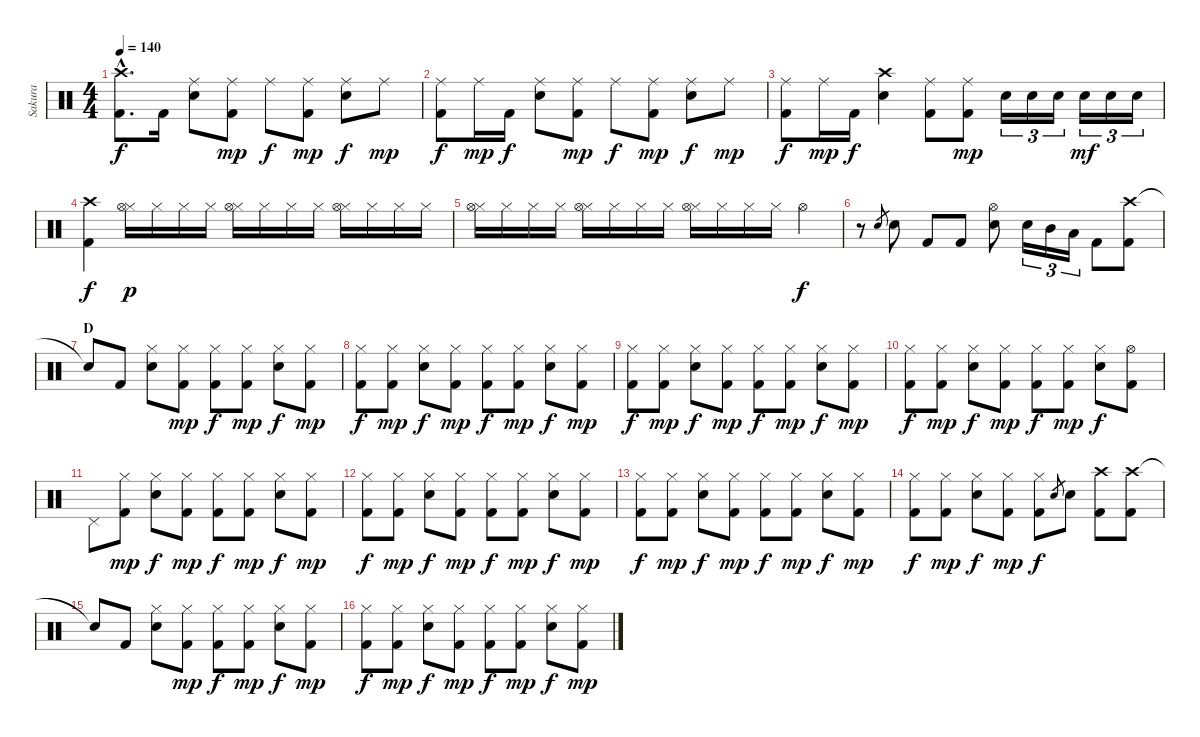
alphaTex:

\track ("Sakura" "Sakura") {instrument percussion}
\staff {score}
\articulation defaults
\ts (4 4)
\tempo 140
\clef neutral
\ks c
("Crash high (hit)"{hac} "Kick (hit) 2"{hac}).8{d dy f} "Kick (hit) 2".16 ("Ride (middle)" "Electric Snare (hit)").8 ("Ride (middle)" "Kick (hit) 2").8{dy mp} "Ride (middle)".8{dy f} ("Ride (middle)" "Kick (hit) 2").8{dy mp} ("Ride (middle)" "Electric Snare (hit)").8{dy f} "Ride (middle)".8{dy mp} |
("Ride (middle)" "Kick (hit) 2").8{dy f} "Ride (middle)".16{dy mp} "Kick (hit) 2".16{dy f} ("Ride (middle)" "Electric Snare (hit)").8 ("Ride (middle)" "Kick (hit) 2").8{dy mp} "Ride (middle)".8{dy f} ("Ride (middle)" "Kick (hit) 2").8{dy mp} ("Ride (middle)" "Electric Snare (hit)").8{dy f} "Ride (middle)".8{dy mp} |
("Ride (middle)" "Kick (hit) 2").8{dy f} "Ride (middle)".16{dy mp} "Kick (hit) 2".16{dy f} ("Crash high (hit)" "Electric Snare (hit)").4 ("Ride (middle)" "Kick (hit) 2").8 ("Ride (middle)" "Kick (hit) 2").8{dy mp} "Electric Snare (hit)".16{tu (3 2)} "Electric Snare (hit)".16{tu (3 2)} "Electric Snare (hit)".16{tu (3 2)} "Electric Snare (hit)".16{tu (3 2) dy mf} "Electric Snare (hit)".16{tu (3 2)} "Electric Snare (hit)".16{tu (3 2)} |
("Crash high (hit)" "Kick (hit) 2").4{dy f} ("Hi-Hat (closed)" "Hi-Hat (open)").16{dy p} "Hi-Hat (closed)".16 "Hi-Hat (closed)".16 "Hi-Hat (closed)".16 ("Hi-Hat (closed)" "Hi-Hat (open)").16 "Hi-Hat (closed)".16 "Hi-Hat (closed)".16 "Hi-Hat (closed)".16 ("Hi-Hat (closed)" "Hi-Hat (open)").16 "Hi-Hat (closed)".16 "Hi-Hat (closed)".16 "Hi-Hat (closed)".16 |
("Hi-Hat (closed)" "Hi-Hat (open)").16 "Hi-Hat (closed)".16 "Hi-Hat (closed)".16 "Hi-Hat (closed)".16 ("Hi-Hat (closed)" "Hi-Hat (open)").16 "Hi-Hat (closed)".16 "Hi-Hat (closed)".16 "Hi-Hat (closed)".16 ("Hi-Hat (closed)" "Hi-Hat (open)").16 "Hi-Hat (closed)".16 "Hi-Hat (closed)".16 "Hi-Hat (closed)".16 "Hi-Hat (open)".4{dy f} |
r.8 "Electric Snare (hit)".8{gr} "Electric Snare (hit)".8 "Kick (hit) 2".8 "Kick (hit) 2".8 ("Hi-Hat (open)" "Electric Snare (hit)").8 "Electric Snare (hit)".16{tu (3 2)} "Mid Tom (hit)".16{tu (3 2)} "Low Tom (hit)".16{tu (3 2)} "Kick (hit) 2".8 ("Crash high (hit)" "Kick (hit) 2").8 |
\section ("" "D")
"Snare (hit)"{t}.8 "Kick (hit) 2".8 ("Hi-Hat (closed)" "Electric Snare (hit)").8 ("Hi-Hat (closed)" "Kick (hit) 2").8{dy mp} ("Hi-Hat (closed)" "Kick (hit) 2").8{dy f} ("Hi-Hat (closed)" "Kick (hit) 2").8{dy mp} ("Hi-Hat (closed)" "Electric Snare (hit)").8{dy f} ("Hi-Hat (closed)" "Kick (hit) 2").8{dy mp} |
("Hi-Hat (closed)" "Kick (hit) 2").8{dy f} ("Hi-Hat (closed)" "Kick (hit) 2").8{dy mp} ("Hi-Hat (closed)" "Electric Snare (hit)").8{dy f} ("Hi-Hat (closed)" "Kick (hit) 2").8{dy mp} ("Hi-Hat (closed)" "Kick (hit) 2").8{dy f} ("Hi-Hat (closed)" "Kick (hit) 2").8{dy mp} ("Hi-Hat (closed)" "Electric Snare (hit)").8{dy f} ("Hi-Hat (closed)" "Kick (hit) 2").8{dy mp} |
("Hi-Hat (closed)" "Kick (hit) 2").8{dy f} ("Hi-Hat (closed)" "Kick (hit) 2").8{dy mp} ("Hi-Hat (closed)" "Electric Snare (hit)").8{dy f} ("Hi-Hat (closed)" "Kick (hit) 2").8{dy mp} ("Hi-Hat (closed)" "Kick (hit) 2").8{dy f} ("Hi-Hat (closed)" "Kick (hit) 2").8{dy mp} ("Hi-Hat (closed)" "Electric Snare (hit)").8{dy f} ("Hi-Hat (closed)" "Kick (hit) 2").8{dy mp} |
("Hi-Hat (closed)" "Kick (hit) 2").8{dy f} ("Hi-Hat (closed)" "Kick (hit) 2").8{dy mp} ("Hi-Hat (closed)" "Electric Snare (hit)").8{dy f} ("Hi-Hat (closed)" "Kick (hit) 2").8{dy mp} ("Hi-Hat (closed)" "Kick (hit) 2").8{dy f} ("Hi-Hat (closed)" "Kick (hit) 2").8{dy mp} ("Hi-Hat (closed)" "Electric Snare (hit)").8{dy f} ("Hi-Hat (open)" "Kick (hit) 2").8 |
"Pedal Hi-Hat (hit)".8 ("Hi-Hat (closed)" "Kick (hit) 2").8{dy mp} ("Hi-Hat (closed)" "Electric Snare (hit)").8{dy f} ("Hi-Hat (closed)" "Kick (hit) 2").8{dy mp} ("Hi-Hat (closed)" "Kick (hit) 2").8{dy f} ("Hi-Hat (closed)" "Kick (hit) 2").8{dy mp} ("Hi-Hat (closed)" "Electric Snare (hit)").8{dy f} ("Hi-Hat (closed)" "Kick (hit) 2").8{dy mp} |
("Hi-Hat (closed)" "Kick (hit) 2").8{dy f} ("Hi-Hat (closed)" "Kick (hit) 2").8{dy mp} ("Hi-Hat (closed)" "Electric Snare (hit)").8{dy f} ("Hi-Hat (closed)" "Kick (hit) 2").8{dy mp} ("Hi-Hat (closed)" "Kick (hit) 2").8{dy f} ("Hi-Hat (closed)" "Kick (hit) 2").8{dy mp} ("Hi-Hat (closed)" "Electric Snare (hit)").8{dy f} ("Hi-Hat (closed)" "Kick (hit) 2").8{dy mp} |
("Hi-Hat (closed)" "Kick (hit) 2").8{dy f} ("Hi-Hat (closed)" "Kick (hit) 2").8{dy mp} ("Hi-Hat (closed)" "Electric Snare (hit)").8{dy f} ("Hi-Hat (closed)" "Kick (hit) 2").8{dy mp} ("Hi-Hat (closed)" "Kick (hit) 2").8{dy f} ("Hi-Hat (closed)" "Kick (hit) 2").8{dy mp} ("Hi-Hat (closed)" "Electric Snare (hit)").8{dy f} ("Hi-Hat (closed)" "Kick (hit) 2").8{dy mp} |
("Hi-Hat (closed)" "Kick (hit) 2").8{dy f} ("Hi-Hat (closed)" "Kick (hit) 2").8{dy mp} ("Hi-Hat (closed)" "Electric Snare (hit)").8{dy f} ("Hi-Hat (closed)" "Kick (hit) 2").8{dy mp} ("Hi-Hat (closed)" "Kick (hit) 2").8{dy f} "Electric Snare (hit)".8{gr} "Electric Snare (hit)".8 ("Crash high (hit)" "Kick (hit) 2").8 ("Crash high (hit)" "Kick (hit) 2").8 |
"Snare (hit)"{t}.8 "Kick (hit) 2".8 ("Hi-Hat (closed)" "Electric Snare (hit)").8 ("Hi-Hat (closed)" "Kick (hit) 2").8{dy mp} ("Hi-Hat (closed)" "Kick (hit) 2").8{dy f} ("Hi-Hat (closed)" "Kick (hit) 2").8{dy mp} ("Hi-Hat (closed)" "Electric Snare (hit)").8{dy f} ("Hi-Hat (closed)" "Kick (hit) 2").8{dy mp} |
("Hi-Hat (closed)" "Kick (hit) 2").8{dy f} ("Hi-Hat (closed)" "Kick (hit) 2").8{dy mp} ("Hi-Hat (closed)" "Electric Snare (hit)").8{dy f} ("Hi-Hat (closed)" "Kick (hit) 2").8{dy mp} ("Hi-Hat (closed)" "Kick (hit) 2").8{dy f} ("Hi-Hat (closed)" "Kick (hit) 2").8{dy mp} ("Hi-Hat (closed)" "Electric Snare (hit)").8{dy f} ("Hi-Hat (closed)" "Kick (hit) 2").8{dy mp}
